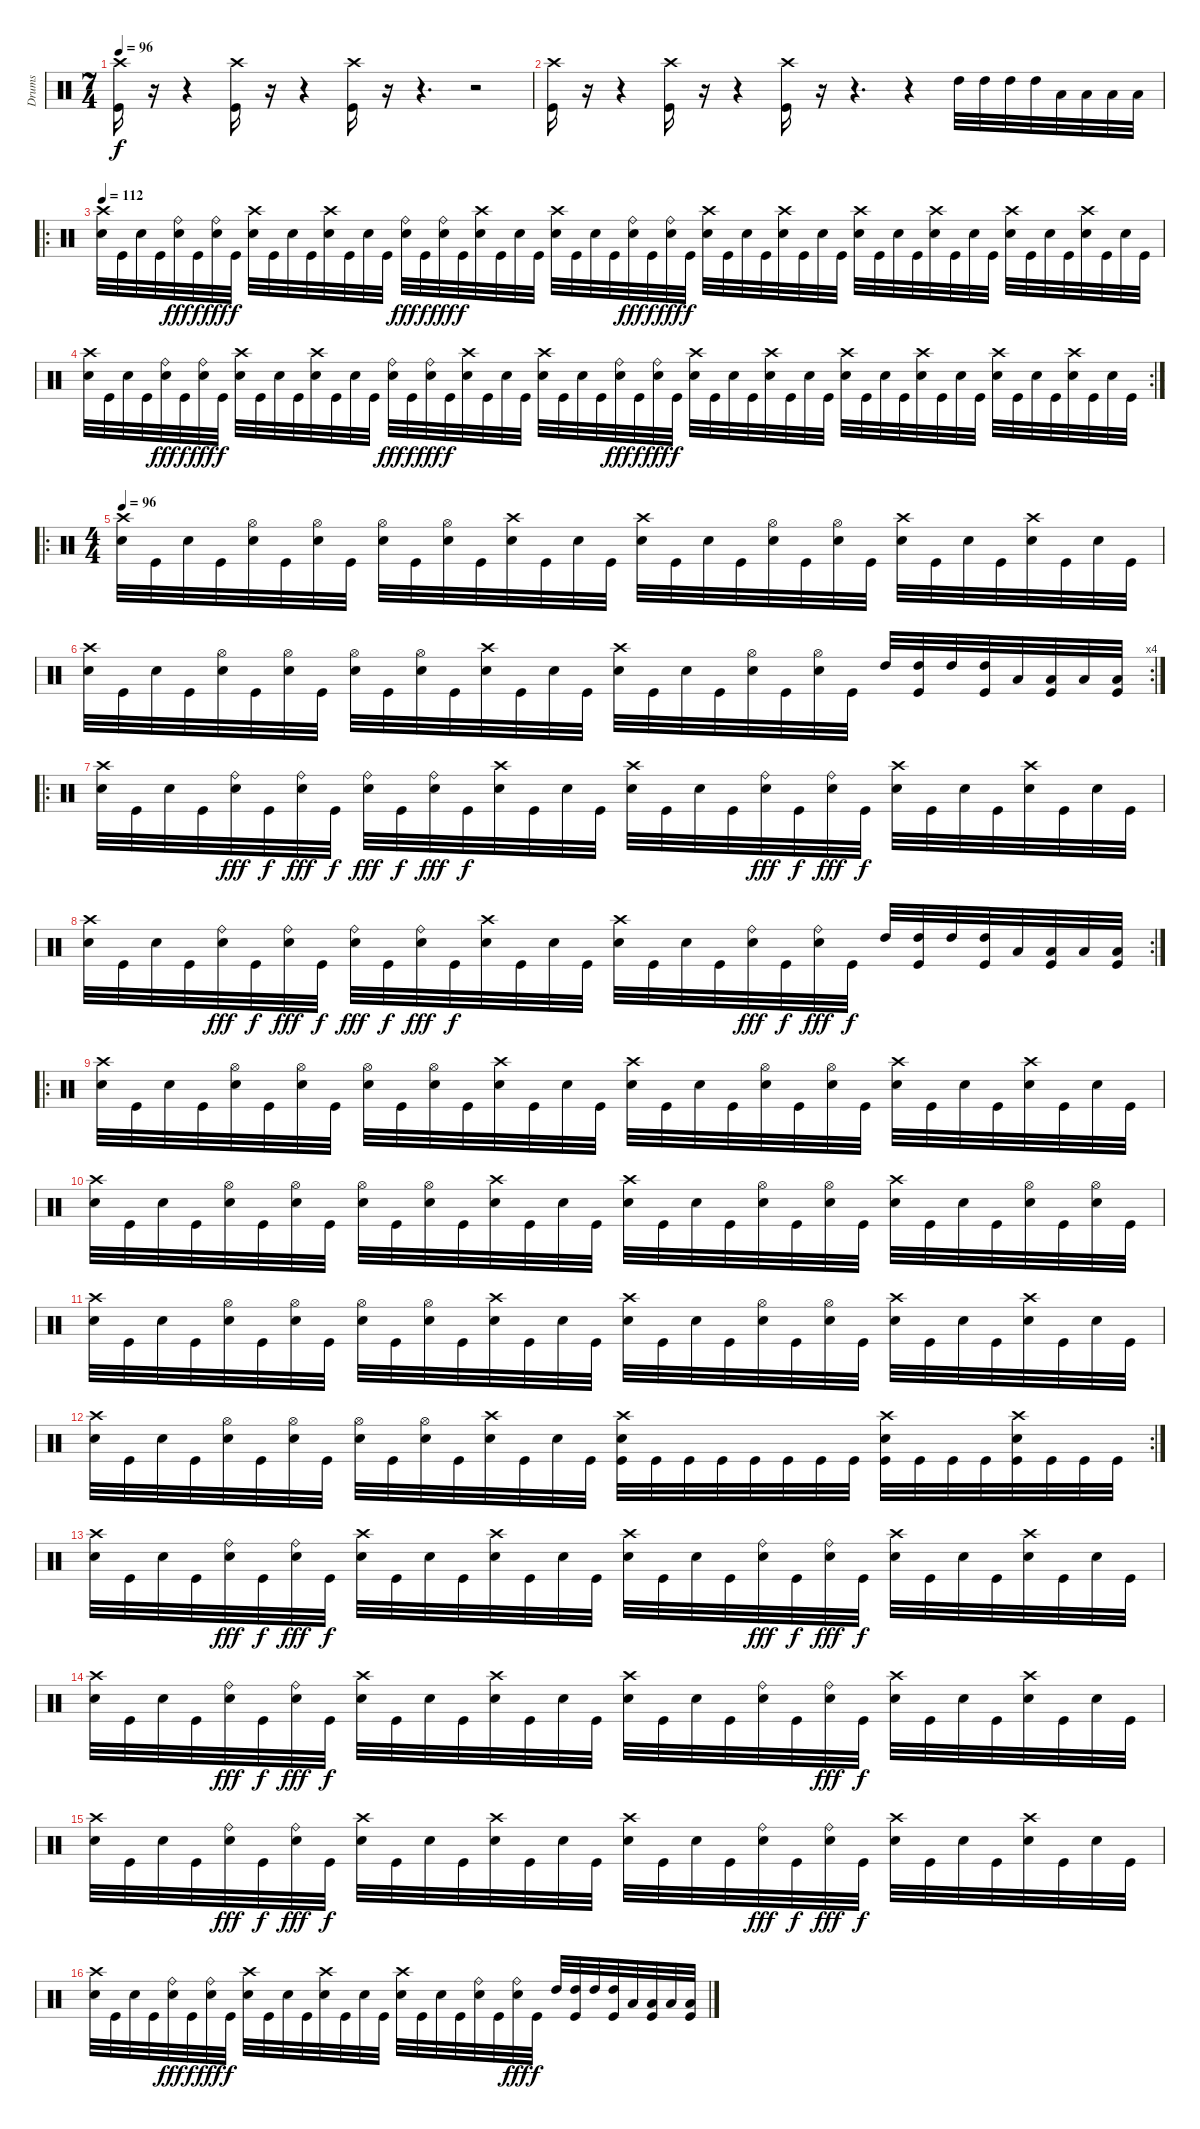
\track ("Drums" "Drums") {instrument percussion}
\staff {score}
\articulation defaults
\ts (7 4)
\tempo 96
\tempo 128
\tempo 96
\clef neutral
\ks c
("Crash high (hit)" "Kick (hit)").16{dy f} r.16 r.4 ("Crash high (hit)" "Kick (hit)").16 r.16 r.4 ("Crash high (hit)" "Kick (hit)").16 r.16 r.4{d} r.2 |
("Crash high (hit)" "Kick (hit)").16 r.16 r.4 ("Crash high (hit)" "Kick (hit)").16 r.16 r.4 ("Crash high (hit)" "Kick (hit)").16 r.16 r.4{d} r.4 "High Tom (hit)".32 "High Tom (hit)".32 "High Tom (hit)".32 "High Tom (hit)".32 "Low Tom (hit)".32 "Low Tom (hit)".32 "Low Tom (hit)".32 "Low Tom (hit)".32 |
\ro
\tempo 112
("Crash high (hit)" "Snare (hit) 2").32 "Kick (hit)".32 "Snare (hit) 2".32 "Kick (hit)".32 ("Ride (bell)" "Snare (hit) 2").32{dy fff} "Kick (hit)".32{dy f} ("Ride (bell)" "Snare (hit) 2").32{dy fff} "Kick (hit)".32{dy f} ("Crash high (hit)" "Snare (hit) 2").32 "Kick (hit)".32 "Snare (hit) 2".32 "Kick (hit)".32 ("Crash high (hit)" "Snare (hit) 2").32 "Kick (hit)".32 "Snare (hit) 2".32 "Kick (hit)".32 ("Ride (bell)" "Snare (hit) 2").32{dy fff} "Kick (hit)".32{dy f} ("Ride (bell)" "Snare (hit) 2").32{dy fff} "Kick (hit)".32{dy f} ("Crash high (hit)" "Snare (hit) 2").32 "Kick (hit)".32 "Snare (hit) 2".32 "Kick (hit)".32 ("Crash high (hit)" "Snare (hit) 2").32 "Kick (hit)".32 "Snare (hit) 2".32 "Kick (hit)".32 ("Ride (bell)" "Snare (hit) 2").32{dy fff} "Kick (hit)".32{dy f} ("Ride (bell)" "Snare (hit) 2").32{dy fff} "Kick (hit)".32{dy f} ("Crash high (hit)" "Snare (hit) 2").32 "Kick (hit)".32 "Snare (hit) 2".32 "Kick (hit)".32 ("Crash high (hit)" "Snare (hit) 2").32 "Kick (hit)".32 "Snare (hit) 2".32 "Kick (hit)".32 ("Crash high (hit)" "Snare (hit) 2").32 "Kick (hit)".32 "Snare (hit) 2".32 "Kick (hit)".32 ("Crash high (hit)" "Snare (hit) 2").32 "Kick (hit)".32 "Snare (hit) 2".32 "Kick (hit)".32 ("Crash high (hit)" "Snare (hit) 2").32 "Kick (hit)".32 "Snare (hit) 2".32 "Kick (hit)".32 ("Crash high (hit)" "Snare (hit) 2").32 "Kick (hit)".32 "Snare (hit) 2".32 "Kick (hit)".32 |
\rc 2
("Crash high (hit)" "Snare (hit) 2").32 "Kick (hit)".32 "Snare (hit) 2".32 "Kick (hit)".32 ("Ride (bell)" "Snare (hit) 2").32{dy fff} "Kick (hit)".32{dy f} ("Ride (bell)" "Snare (hit) 2").32{dy fff} "Kick (hit)".32{dy f} ("Crash high (hit)" "Snare (hit) 2").32 "Kick (hit)".32 "Snare (hit) 2".32 "Kick (hit)".32 ("Crash high (hit)" "Snare (hit) 2").32 "Kick (hit)".32 "Snare (hit) 2".32 "Kick (hit)".32 ("Ride (bell)" "Snare (hit) 2").32{dy fff} "Kick (hit)".32{dy f} ("Ride (bell)" "Snare (hit) 2").32{dy fff} "Kick (hit)".32{dy f} ("Crash high (hit)" "Snare (hit) 2").32 "Kick (hit)".32 "Snare (hit) 2".32 "Kick (hit)".32 ("Crash high (hit)" "Snare (hit) 2").32 "Kick (hit)".32 "Snare (hit) 2".32 "Kick (hit)".32 ("Ride (bell)" "Snare (hit) 2").32{dy fff} "Kick (hit)".32{dy f} ("Ride (bell)" "Snare (hit) 2").32{dy fff} "Kick (hit)".32{dy f} ("Crash high (hit)" "Snare (hit) 2").32 "Kick (hit)".32 "Snare (hit) 2".32 "Kick (hit)".32 ("Crash high (hit)" "Snare (hit) 2").32 "Kick (hit)".32 "Snare (hit) 2".32 "Kick (hit)".32 ("Crash high (hit)" "Snare (hit) 2").32 "Kick (hit)".32 "Snare (hit) 2".32 "Kick (hit)".32 ("Crash high (hit)" "Snare (hit) 2").32 "Kick (hit)".32 "Snare (hit) 2".32 "Kick (hit)".32 ("Crash high (hit)" "Snare (hit) 2").32 "Kick (hit)".32 "Snare (hit) 2".32 "Kick (hit)".32 ("Crash high (hit)" "Snare (hit) 2").32 "Kick (hit)".32 "Snare (hit) 2".32 "Kick (hit)".32 |
\ro
\ts (4 4)
\tempo 96
("Crash high (hit)" "Snare (hit) 2").32 "Kick (hit)".32 "Snare (hit) 2".32 "Kick (hit)".32 ("Hi-Hat (open)" "Snare (hit) 2").32 "Kick (hit)".32 ("Hi-Hat (open)" "Snare (hit) 2").32 "Kick (hit)".32 ("Hi-Hat (open)" "Snare (hit) 2").32 "Kick (hit)".32 ("Hi-Hat (open)" "Snare (hit) 2").32 "Kick (hit)".32 ("Crash high (hit)" "Snare (hit) 2").32 "Kick (hit)".32 "Snare (hit) 2".32 "Kick (hit)".32 ("Crash high (hit)" "Snare (hit) 2").32 "Kick (hit)".32 "Snare (hit) 2".32 "Kick (hit)".32 ("Hi-Hat (open)" "Snare (hit) 2").32 "Kick (hit)".32 ("Hi-Hat (open)" "Snare (hit) 2").32 "Kick (hit)".32 ("Crash high (hit)" "Snare (hit) 2").32 "Kick (hit)".32 "Snare (hit) 2".32 "Kick (hit)".32 ("Crash high (hit)" "Snare (hit) 2").32 "Kick (hit)".32 "Snare (hit) 2".32 "Kick (hit)".32 |
\rc 4
("Crash high (hit)" "Snare (hit) 2").32 "Kick (hit)".32 "Snare (hit) 2".32 "Kick (hit)".32 ("Hi-Hat (open)" "Snare (hit) 2").32 "Kick (hit)".32 ("Hi-Hat (open)" "Snare (hit) 2").32 "Kick (hit)".32 ("Hi-Hat (open)" "Snare (hit) 2").32 "Kick (hit)".32 ("Hi-Hat (open)" "Snare (hit) 2").32 "Kick (hit)".32 ("Crash high (hit)" "Snare (hit) 2").32 "Kick (hit)".32 "Snare (hit) 2".32 "Kick (hit)".32 ("Crash high (hit)" "Snare (hit) 2").32 "Kick (hit)".32 "Snare (hit) 2".32 "Kick (hit)".32 ("Hi-Hat (open)" "Snare (hit) 2").32 "Kick (hit)".32 ("Hi-Hat (open)" "Snare (hit) 2").32 "Kick (hit)".32 "High Tom (hit)".32 ("High Tom (hit)" "Kick (hit)").32 "High Tom (hit)".32 ("High Tom (hit)" "Kick (hit)").32 "Low Tom (hit)".32 ("Low Tom (hit)" "Kick (hit)").32 "Low Tom (hit)".32 ("Low Tom (hit)" "Kick (hit)").32 |
\ro
("Crash high (hit)" "Snare (hit) 2").32 "Kick (hit)".32 "Snare (hit) 2".32 "Kick (hit)".32 ("Ride (bell)" "Snare (hit) 2").32{dy fff} "Kick (hit)".32{dy f} ("Ride (bell)" "Snare (hit) 2").32{dy fff} "Kick (hit)".32{dy f} ("Ride (bell)" "Snare (hit) 2").32{dy fff} "Kick (hit)".32{dy f} ("Ride (bell)" "Snare (hit) 2").32{dy fff} "Kick (hit)".32{dy f} ("Crash high (hit)" "Snare (hit) 2").32 "Kick (hit)".32 "Snare (hit) 2".32 "Kick (hit)".32 ("Crash high (hit)" "Snare (hit) 2").32 "Kick (hit)".32 "Snare (hit) 2".32 "Kick (hit)".32 ("Ride (bell)" "Snare (hit) 2").32{dy fff} "Kick (hit)".32{dy f} ("Ride (bell)" "Snare (hit) 2").32{dy fff} "Kick (hit)".32{dy f} ("Crash high (hit)" "Snare (hit) 2").32 "Kick (hit)".32 "Snare (hit) 2".32 "Kick (hit)".32 ("Crash high (hit)" "Snare (hit) 2").32 "Kick (hit)".32 "Snare (hit) 2".32 "Kick (hit)".32 |
\rc 2
("Crash high (hit)" "Snare (hit) 2").32 "Kick (hit)".32 "Snare (hit) 2".32 "Kick (hit)".32 ("Ride (bell)" "Snare (hit) 2").32{dy fff} "Kick (hit)".32{dy f} ("Ride (bell)" "Snare (hit) 2").32{dy fff} "Kick (hit)".32{dy f} ("Ride (bell)" "Snare (hit) 2").32{dy fff} "Kick (hit)".32{dy f} ("Ride (bell)" "Snare (hit) 2").32{dy fff} "Kick (hit)".32{dy f} ("Crash high (hit)" "Snare (hit) 2").32 "Kick (hit)".32 "Snare (hit) 2".32 "Kick (hit)".32 ("Crash high (hit)" "Snare (hit) 2").32 "Kick (hit)".32 "Snare (hit) 2".32 "Kick (hit)".32 ("Ride (bell)" "Snare (hit) 2").32{dy fff} "Kick (hit)".32{dy f} ("Ride (bell)" "Snare (hit) 2").32{dy fff} "Kick (hit)".32{dy f} "High Tom (hit)".32 ("High Tom (hit)" "Kick (hit)").32 "High Tom (hit)".32 ("High Tom (hit)" "Kick (hit)").32 "Low Tom (hit)".32 ("Low Tom (hit)" "Kick (hit)").32 "Low Tom (hit)".32 ("Low Tom (hit)" "Kick (hit)").32 |
\ro
("Crash high (hit)" "Snare (hit) 2").32 "Kick (hit)".32 "Snare (hit) 2".32 "Kick (hit)".32 ("Hi-Hat (open)" "Snare (hit) 2").32 "Kick (hit)".32 ("Hi-Hat (open)" "Snare (hit) 2").32 "Kick (hit)".32 ("Hi-Hat (open)" "Snare (hit) 2").32 "Kick (hit)".32 ("Hi-Hat (open)" "Snare (hit) 2").32 "Kick (hit)".32 ("Crash high (hit)" "Snare (hit) 2").32 "Kick (hit)".32 "Snare (hit) 2".32 "Kick (hit)".32 ("Crash high (hit)" "Snare (hit) 2").32 "Kick (hit)".32 "Snare (hit) 2".32 "Kick (hit)".32 ("Hi-Hat (open)" "Snare (hit) 2").32 "Kick (hit)".32 ("Hi-Hat (open)" "Snare (hit) 2").32 "Kick (hit)".32 ("Crash high (hit)" "Snare (hit) 2").32 "Kick (hit)".32 "Snare (hit) 2".32 "Kick (hit)".32 ("Crash high (hit)" "Snare (hit) 2").32 "Kick (hit)".32 "Snare (hit) 2".32 "Kick (hit)".32 |
("Crash high (hit)" "Snare (hit) 2").32 "Kick (hit)".32 "Snare (hit) 2".32 "Kick (hit)".32 ("Hi-Hat (open)" "Snare (hit) 2").32 "Kick (hit)".32 ("Hi-Hat (open)" "Snare (hit) 2").32 "Kick (hit)".32 ("Hi-Hat (open)" "Snare (hit) 2").32 "Kick (hit)".32 ("Hi-Hat (open)" "Snare (hit) 2").32 "Kick (hit)".32 ("Crash high (hit)" "Snare (hit) 2").32 "Kick (hit)".32 "Snare (hit) 2".32 "Kick (hit)".32 ("Crash high (hit)" "Snare (hit) 2").32 "Kick (hit)".32 "Snare (hit) 2".32 "Kick (hit)".32 ("Hi-Hat (open)" "Snare (hit) 2").32 "Kick (hit)".32 ("Hi-Hat (open)" "Snare (hit) 2").32 "Kick (hit)".32 ("Crash high (hit)" "Snare (hit) 2").32 "Kick (hit)".32 "Snare (hit) 2".32 "Kick (hit)".32 ("Hi-Hat (open)" "Snare (hit) 2").32 "Kick (hit)".32 ("Hi-Hat (open)" "Snare (hit) 2").32 "Kick (hit)".32 |
("Crash high (hit)" "Snare (hit) 2").32 "Kick (hit)".32 "Snare (hit) 2".32 "Kick (hit)".32 ("Hi-Hat (open)" "Snare (hit) 2").32 "Kick (hit)".32 ("Hi-Hat (open)" "Snare (hit) 2").32 "Kick (hit)".32 ("Hi-Hat (open)" "Snare (hit) 2").32 "Kick (hit)".32 ("Hi-Hat (open)" "Snare (hit) 2").32 "Kick (hit)".32 ("Crash high (hit)" "Snare (hit) 2").32 "Kick (hit)".32 "Snare (hit) 2".32 "Kick (hit)".32 ("Crash high (hit)" "Snare (hit) 2").32 "Kick (hit)".32 "Snare (hit) 2".32 "Kick (hit)".32 ("Hi-Hat (open)" "Snare (hit) 2").32 "Kick (hit)".32 ("Hi-Hat (open)" "Snare (hit) 2").32 "Kick (hit)".32 ("Crash high (hit)" "Snare (hit) 2").32 "Kick (hit)".32 "Snare (hit) 2".32 "Kick (hit)".32 ("Crash high (hit)" "Snare (hit) 2").32 "Kick (hit)".32 "Snare (hit) 2".32 "Kick (hit)".32 |
\rc 2
("Crash high (hit)" "Snare (hit) 2").32 "Kick (hit)".32 "Snare (hit) 2".32 "Kick (hit)".32 ("Hi-Hat (open)" "Snare (hit) 2").32 "Kick (hit)".32 ("Hi-Hat (open)" "Snare (hit) 2").32 "Kick (hit)".32 ("Hi-Hat (open)" "Snare (hit) 2").32 "Kick (hit)".32 ("Hi-Hat (open)" "Snare (hit) 2").32 "Kick (hit)".32 ("Crash high (hit)" "Snare (hit) 2").32 "Kick (hit)".32 "Snare (hit) 2".32 "Kick (hit)".32 ("Crash high (hit)" "Snare (hit) 2" "Kick (hit)").32 "Kick (hit)".32 "Kick (hit)".32 "Kick (hit)".32 "Kick (hit)".32 "Kick (hit)".32 "Kick (hit)".32 "Kick (hit)".32 ("Crash high (hit)" "Snare (hit) 2" "Kick (hit)").32 "Kick (hit)".32 "Kick (hit)".32 "Kick (hit)".32 ("Crash high (hit)" "Snare (hit) 2" "Kick (hit)").32 "Kick (hit)".32 "Kick (hit)".32 "Kick (hit)".32 |
("Crash high (hit)" "Snare (hit) 2").32 "Kick (hit)".32 "Snare (hit) 2".32 "Kick (hit)".32 ("Ride (bell)" "Snare (hit) 2").32{dy fff} "Kick (hit)".32{dy f} ("Ride (bell)" "Snare (hit) 2").32{dy fff} "Kick (hit)".32{dy f} ("Crash high (hit)" "Snare (hit) 2").32 "Kick (hit)".32 "Snare (hit) 2".32 "Kick (hit)".32 ("Crash high (hit)" "Snare (hit) 2").32 "Kick (hit)".32 "Snare (hit) 2".32 "Kick (hit)".32 ("Crash high (hit)" "Snare (hit) 2").32 "Kick (hit)".32 "Snare (hit) 2".32 "Kick (hit)".32 ("Ride (bell)" "Snare (hit) 2").32{dy fff} "Kick (hit)".32{dy f} ("Ride (bell)" "Snare (hit) 2").32{dy fff} "Kick (hit)".32{dy f} ("Crash high (hit)" "Snare (hit) 2").32 "Kick (hit)".32 "Snare (hit) 2".32 "Kick (hit)".32 ("Crash high (hit)" "Snare (hit) 2").32 "Kick (hit)".32 "Snare (hit) 2".32 "Kick (hit)".32 |
("Crash high (hit)" "Snare (hit) 2").32 "Kick (hit)".32 "Snare (hit) 2".32 "Kick (hit)".32 ("Ride (bell)" "Snare (hit) 2").32{dy fff} "Kick (hit)".32{dy f} ("Ride (bell)" "Snare (hit) 2").32{dy fff} "Kick (hit)".32{dy f} ("Crash high (hit)" "Snare (hit) 2").32 "Kick (hit)".32 "Snare (hit) 2".32 "Kick (hit)".32 ("Crash high (hit)" "Snare (hit) 2").32 "Kick (hit)".32 "Snare (hit) 2".32 "Kick (hit)".32 ("Crash high (hit)" "Snare (hit) 2").32 "Kick (hit)".32 "Snare (hit) 2".32 "Kick (hit)".32 ("Ride (bell)" "Snare (hit) 2").32 "Kick (hit)".32 ("Ride (bell)" "Snare (hit) 2").32{dy fff} "Kick (hit)".32{dy f} ("Crash high (hit)" "Snare (hit) 2").32 "Kick (hit)".32 "Snare (hit) 2".32 "Kick (hit)".32 ("Crash high (hit)" "Snare (hit) 2").32 "Kick (hit)".32 "Snare (hit) 2".32 "Kick (hit)".32 |
("Crash high (hit)" "Snare (hit) 2").32 "Kick (hit)".32 "Snare (hit) 2".32 "Kick (hit)".32 ("Ride (bell)" "Snare (hit) 2").32{dy fff} "Kick (hit)".32{dy f} ("Ride (bell)" "Snare (hit) 2").32{dy fff} "Kick (hit)".32{dy f} ("Crash high (hit)" "Snare (hit) 2").32 "Kick (hit)".32 "Snare (hit) 2".32 "Kick (hit)".32 ("Crash high (hit)" "Snare (hit) 2").32 "Kick (hit)".32 "Snare (hit) 2".32 "Kick (hit)".32 ("Crash high (hit)" "Snare (hit) 2").32 "Kick (hit)".32 "Snare (hit) 2".32 "Kick (hit)".32 ("Ride (bell)" "Snare (hit) 2").32{dy fff} "Kick (hit)".32{dy f} ("Ride (bell)" "Snare (hit) 2").32{dy fff} "Kick (hit)".32{dy f} ("Crash high (hit)" "Snare (hit) 2").32 "Kick (hit)".32 "Snare (hit) 2".32 "Kick (hit)".32 ("Crash high (hit)" "Snare (hit) 2").32 "Kick (hit)".32 "Snare (hit) 2".32 "Kick (hit)".32 |
("Crash high (hit)" "Snare (hit) 2").32 "Kick (hit)".32 "Snare (hit) 2".32 "Kick (hit)".32 ("Ride (bell)" "Snare (hit) 2").32{dy fff} "Kick (hit)".32{dy f} ("Ride (bell)" "Snare (hit) 2").32{dy fff} "Kick (hit)".32{dy f} ("Crash high (hit)" "Snare (hit) 2").32 "Kick (hit)".32 "Snare (hit) 2".32 "Kick (hit)".32 ("Crash high (hit)" "Snare (hit) 2").32 "Kick (hit)".32 "Snare (hit) 2".32 "Kick (hit)".32 ("Crash high (hit)" "Snare (hit) 2").32 "Kick (hit)".32 "Snare (hit) 2".32 "Kick (hit)".32 ("Ride (bell)" "Snare (hit) 2").32 "Kick (hit)".32 ("Ride (bell)" "Snare (hit) 2").32{dy fff} "Kick (hit)".32{dy f} "High Tom (hit)".32 ("High Tom (hit)" "Kick (hit)").32 "High Tom (hit)".32 ("High Tom (hit)" "Kick (hit)").32 "Low Tom (hit)".32 ("Low Tom (hit)" "Kick (hit)").32 "Low Tom (hit)".32 ("Low Tom (hit)" "Kick (hit)").32
